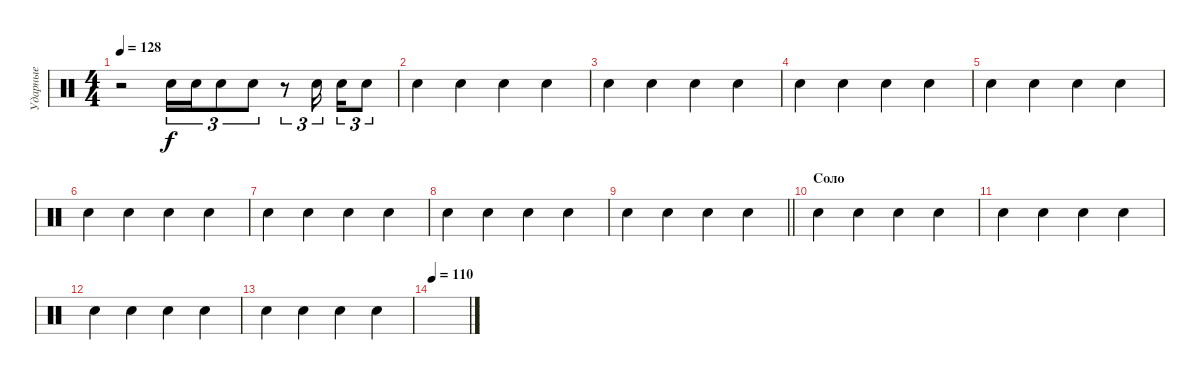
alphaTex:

\track ("Ударные" "Ударные") {instrument percussion}
\staff {score}
\articulation defaults
\ts (4 4)
\tempo 128
\clef neutral
\ks c
r.2{dy f} "Electric Snare (hit)".16{tu (3 2)} "Electric Snare (hit)".16{tu (3 2)} "Electric Snare (hit)".8{tu (3 2)} "Electric Snare (hit)".8{tu (3 2)} r.8{tu (3 2)} "Electric Snare (hit)".16{tu (3 2) beam splitsecondary} "Electric Snare (hit)".16{tu (3 2)} "Electric Snare (hit)".8{tu (3 2)} |
"Electric Snare (hit)".4 "Electric Snare (hit)".4 "Electric Snare (hit)".4 "Electric Snare (hit)".4 |
"Electric Snare (hit)".4 "Electric Snare (hit)".4 "Electric Snare (hit)".4 "Electric Snare (hit)".4 |
"Electric Snare (hit)".4 "Electric Snare (hit)".4 "Electric Snare (hit)".4 "Electric Snare (hit)".4 |
"Electric Snare (hit)".4 "Electric Snare (hit)".4 "Electric Snare (hit)".4 "Electric Snare (hit)".4 |
"Electric Snare (hit)".4 "Electric Snare (hit)".4 "Electric Snare (hit)".4 "Electric Snare (hit)".4 |
"Electric Snare (hit)".4 "Electric Snare (hit)".4 "Electric Snare (hit)".4 "Electric Snare (hit)".4 |
"Electric Snare (hit)".4 "Electric Snare (hit)".4 "Electric Snare (hit)".4 "Electric Snare (hit)".4 |
\barLineRight lightlight "Electric Snare (hit)".4 "Electric Snare (hit)".4 "Electric Snare (hit)".4 "Electric Snare (hit)".4
|
\section ("" "Соло")
"Electric Snare (hit)".4 "Electric Snare (hit)".4 "Electric Snare (hit)".4 "Electric Snare (hit)".4 |
"Electric Snare (hit)".4 "Electric Snare (hit)".4 "Electric Snare (hit)".4 "Electric Snare (hit)".4 |
"Electric Snare (hit)".4 "Electric Snare (hit)".4 "Electric Snare (hit)".4 "Electric Snare (hit)".4 |
"Electric Snare (hit)".4 "Electric Snare (hit)".4 "Electric Snare (hit)".4 "Electric Snare (hit)".4 |
\tempo 110
